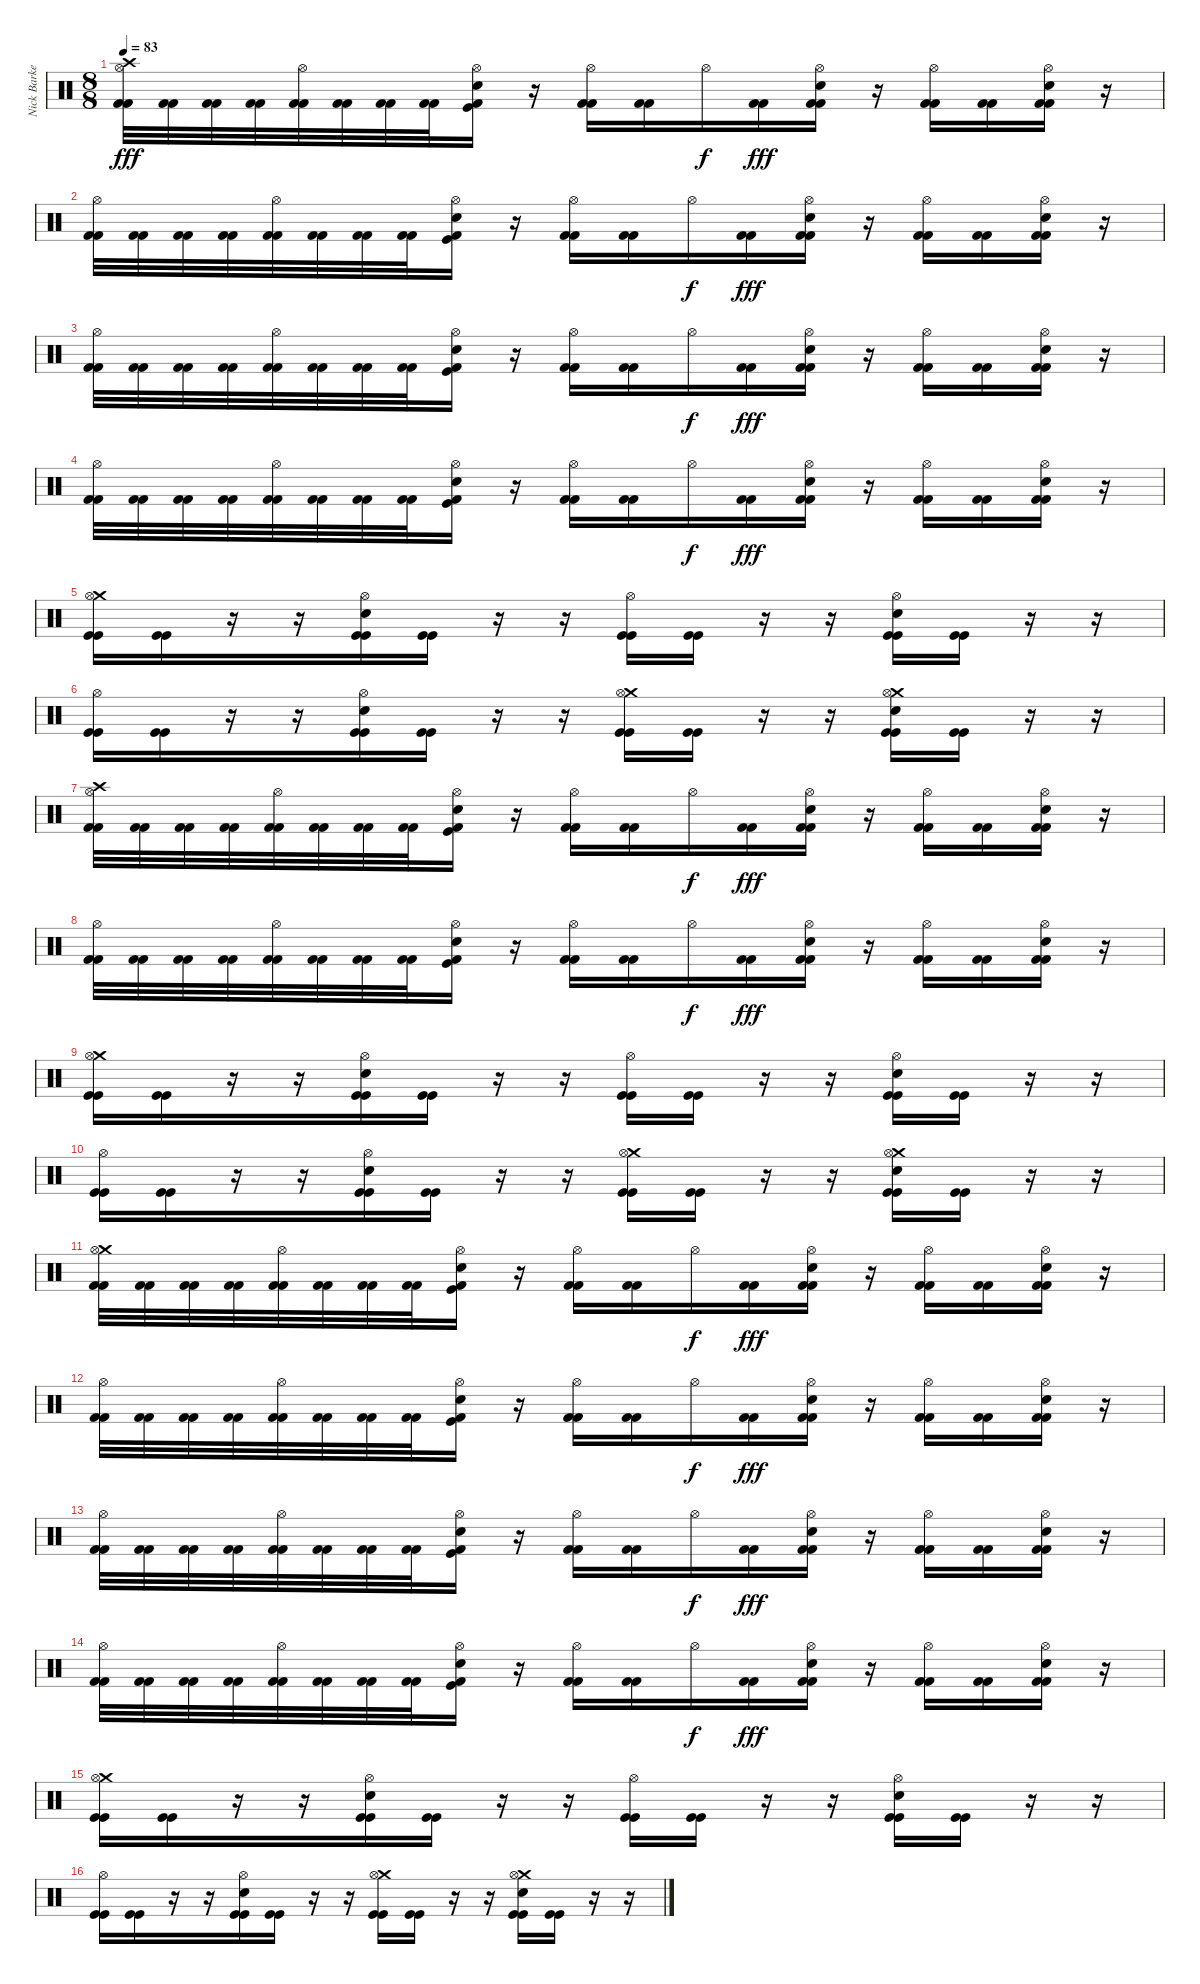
\track ("Nick Barker" "Nick Barke") {instrument percussion}
\staff {score}
\articulation defaults
\ts (8 8)
\tempo 83
\clef neutral
\ks c
("Kick (hit) 2" "Crash high (hit)" "Hi-Hat (open)" "Kick (hit) 2").32{dy fff} ("Kick (hit) 2" "Kick (hit) 2").32 ("Kick (hit) 2" "Kick (hit) 2").32 ("Kick (hit) 2" "Kick (hit) 2").32 ("Kick (hit) 2" "Hi-Hat (open)" "Kick (hit) 2").32 ("Kick (hit) 2" "Kick (hit) 2").32 ("Kick (hit) 2" "Kick (hit) 2").32 ("Kick (hit) 2" "Kick (hit) 2").32 ("Kick (hit) 2" "Hi-Hat (open)" "Snare (hit) 2" "Kick (hit)").16 r.16 ("Kick (hit) 2" "Hi-Hat (open)" "Kick (hit) 2").16 ("Kick (hit) 2" "Kick (hit) 2").16 "Hi-Hat (open)".16{dy f} ("Kick (hit) 2" "Kick (hit) 2").16{dy fff} ("Kick (hit) 2" "Snare (hit) 2" "Hi-Hat (open)" "Kick (hit) 2").16 r.16 ("Kick (hit) 2" "Hi-Hat (open)" "Kick (hit) 2").16 ("Kick (hit) 2" "Kick (hit) 2").16 ("Kick (hit) 2" "Snare (hit) 2" "Hi-Hat (open)" "Kick (hit) 2").16 r.16 |
("Kick (hit) 2" "Hi-Hat (open)" "Kick (hit) 2").32 ("Kick (hit) 2" "Kick (hit) 2").32 ("Kick (hit) 2" "Kick (hit) 2").32 ("Kick (hit) 2" "Kick (hit) 2").32 ("Kick (hit) 2" "Hi-Hat (open)" "Kick (hit) 2").32 ("Kick (hit) 2" "Kick (hit) 2").32 ("Kick (hit) 2" "Kick (hit) 2").32 ("Kick (hit) 2" "Kick (hit) 2").32 ("Kick (hit) 2" "Hi-Hat (open)" "Snare (hit) 2" "Kick (hit)").16 r.16 ("Kick (hit) 2" "Hi-Hat (open)" "Kick (hit) 2").16 ("Kick (hit) 2" "Kick (hit) 2").16 "Hi-Hat (open)".16{dy f} ("Kick (hit) 2" "Kick (hit) 2").16{dy fff} ("Kick (hit) 2" "Snare (hit) 2" "Hi-Hat (open)" "Kick (hit) 2").16 r.16 ("Kick (hit) 2" "Hi-Hat (open)" "Kick (hit) 2").16 ("Kick (hit) 2" "Kick (hit) 2").16 ("Kick (hit) 2" "Snare (hit) 2" "Hi-Hat (open)" "Kick (hit) 2").16 r.16 |
("Kick (hit) 2" "Hi-Hat (open)" "Kick (hit) 2").32 ("Kick (hit) 2" "Kick (hit) 2").32 ("Kick (hit) 2" "Kick (hit) 2").32 ("Kick (hit) 2" "Kick (hit) 2").32 ("Kick (hit) 2" "Hi-Hat (open)" "Kick (hit) 2").32 ("Kick (hit) 2" "Kick (hit) 2").32 ("Kick (hit) 2" "Kick (hit) 2").32 ("Kick (hit) 2" "Kick (hit) 2").32 ("Kick (hit) 2" "Hi-Hat (open)" "Snare (hit) 2" "Kick (hit)").16 r.16 ("Kick (hit) 2" "Hi-Hat (open)" "Kick (hit) 2").16 ("Kick (hit) 2" "Kick (hit) 2").16 "Hi-Hat (open)".16{dy f} ("Kick (hit) 2" "Kick (hit) 2").16{dy fff} ("Kick (hit) 2" "Snare (hit) 2" "Hi-Hat (open)" "Kick (hit) 2").16 r.16 ("Kick (hit) 2" "Hi-Hat (open)" "Kick (hit) 2").16 ("Kick (hit) 2" "Kick (hit) 2").16 ("Kick (hit) 2" "Snare (hit) 2" "Hi-Hat (open)" "Kick (hit) 2").16 r.16 |
("Kick (hit) 2" "Hi-Hat (open)" "Kick (hit) 2").32 ("Kick (hit) 2" "Kick (hit) 2").32 ("Kick (hit) 2" "Kick (hit) 2").32 ("Kick (hit) 2" "Kick (hit) 2").32 ("Kick (hit) 2" "Hi-Hat (open)" "Kick (hit) 2").32 ("Kick (hit) 2" "Kick (hit) 2").32 ("Kick (hit) 2" "Kick (hit) 2").32 ("Kick (hit) 2" "Kick (hit) 2").32 ("Kick (hit) 2" "Hi-Hat (open)" "Snare (hit) 2" "Kick (hit)").16 r.16 ("Kick (hit) 2" "Hi-Hat (open)" "Kick (hit) 2").16 ("Kick (hit) 2" "Kick (hit) 2").16 "Hi-Hat (open)".16{dy f} ("Kick (hit) 2" "Kick (hit) 2").16{dy fff} ("Kick (hit) 2" "Snare (hit) 2" "Hi-Hat (open)" "Kick (hit) 2").16 r.16 ("Kick (hit) 2" "Hi-Hat (open)" "Kick (hit) 2").16 ("Kick (hit) 2" "Kick (hit) 2").16 ("Kick (hit) 2" "Snare (hit) 2" "Hi-Hat (open)" "Kick (hit) 2").16 r.16 |
("Kick (hit)" "Crash medium (hit)" "Hi-Hat (open)" "Kick (hit)").16 ("Kick (hit)" "Kick (hit)").16 r.16 r.16 ("Kick (hit)" "Snare (hit) 2" "Hi-Hat (open)" "Kick (hit)").16 ("Kick (hit)" "Kick (hit)").16 r.16 r.16 ("Kick (hit)" "Hi-Hat (open)" "Kick (hit)").16 ("Kick (hit)" "Kick (hit)").16 r.16 r.16 ("Kick (hit)" "Snare (hit) 2" "Hi-Hat (open)" "Kick (hit)").16 ("Kick (hit)" "Kick (hit)").16 r.16 r.16 |
("Kick (hit)" "Hi-Hat (open)" "Kick (hit)").16 ("Kick (hit)" "Kick (hit)").16 r.16 r.16 ("Kick (hit)" "Snare (hit) 2" "Hi-Hat (open)" "Kick (hit)").16 ("Kick (hit)" "Kick (hit)").16 r.16 r.16 ("Kick (hit)" "Crash medium (hit)" "Hi-Hat (open)" "Kick (hit)").16 ("Kick (hit)" "Kick (hit)").16 r.16 r.16 ("Kick (hit)" "Crash medium (hit)" "Snare (hit) 2" "Hi-Hat (open)" "Kick (hit)").16 ("Kick (hit)" "Kick (hit)").16 r.16 r.16 |
("Kick (hit) 2" "Crash high (hit)" "Hi-Hat (open)" "Kick (hit) 2").32 ("Kick (hit) 2" "Kick (hit) 2").32 ("Kick (hit) 2" "Kick (hit) 2").32 ("Kick (hit) 2" "Kick (hit) 2").32 ("Kick (hit) 2" "Hi-Hat (open)" "Kick (hit) 2").32 ("Kick (hit) 2" "Kick (hit) 2").32 ("Kick (hit) 2" "Kick (hit) 2").32 ("Kick (hit) 2" "Kick (hit) 2").32 ("Kick (hit) 2" "Hi-Hat (open)" "Snare (hit) 2" "Kick (hit)").16 r.16 ("Kick (hit) 2" "Hi-Hat (open)" "Kick (hit) 2").16 ("Kick (hit) 2" "Kick (hit) 2").16 "Hi-Hat (open)".16{dy f} ("Kick (hit) 2" "Kick (hit) 2").16{dy fff} ("Kick (hit) 2" "Snare (hit) 2" "Hi-Hat (open)" "Kick (hit) 2").16 r.16 ("Kick (hit) 2" "Hi-Hat (open)" "Kick (hit) 2").16 ("Kick (hit) 2" "Kick (hit) 2").16 ("Kick (hit) 2" "Snare (hit) 2" "Hi-Hat (open)" "Kick (hit) 2").16 r.16 |
("Kick (hit) 2" "Hi-Hat (open)" "Kick (hit) 2").32 ("Kick (hit) 2" "Kick (hit) 2").32 ("Kick (hit) 2" "Kick (hit) 2").32 ("Kick (hit) 2" "Kick (hit) 2").32 ("Kick (hit) 2" "Hi-Hat (open)" "Kick (hit) 2").32 ("Kick (hit) 2" "Kick (hit) 2").32 ("Kick (hit) 2" "Kick (hit) 2").32 ("Kick (hit) 2" "Kick (hit) 2").32 ("Kick (hit) 2" "Hi-Hat (open)" "Snare (hit) 2" "Kick (hit)").16 r.16 ("Kick (hit) 2" "Hi-Hat (open)" "Kick (hit) 2").16 ("Kick (hit) 2" "Kick (hit) 2").16 "Hi-Hat (open)".16{dy f} ("Kick (hit) 2" "Kick (hit) 2").16{dy fff} ("Kick (hit) 2" "Snare (hit) 2" "Hi-Hat (open)" "Kick (hit) 2").16 r.16 ("Kick (hit) 2" "Hi-Hat (open)" "Kick (hit) 2").16 ("Kick (hit) 2" "Kick (hit) 2").16 ("Kick (hit) 2" "Snare (hit) 2" "Hi-Hat (open)" "Kick (hit) 2").16 r.16 |
("Kick (hit)" "Crash medium (hit)" "Hi-Hat (open)" "Kick (hit)").16 ("Kick (hit)" "Kick (hit)").16 r.16 r.16 ("Kick (hit)" "Snare (hit) 2" "Hi-Hat (open)" "Kick (hit)").16 ("Kick (hit)" "Kick (hit)").16 r.16 r.16 ("Kick (hit)" "Hi-Hat (open)" "Kick (hit)").16 ("Kick (hit)" "Kick (hit)").16 r.16 r.16 ("Kick (hit)" "Snare (hit) 2" "Hi-Hat (open)" "Kick (hit)").16 ("Kick (hit)" "Kick (hit)").16 r.16 r.16 |
("Kick (hit)" "Hi-Hat (open)" "Kick (hit)").16 ("Kick (hit)" "Kick (hit)").16 r.16 r.16 ("Kick (hit)" "Snare (hit) 2" "Hi-Hat (open)" "Kick (hit)").16 ("Kick (hit)" "Kick (hit)").16 r.16 r.16 ("Kick (hit)" "Crash medium (hit)" "Hi-Hat (open)" "Kick (hit)").16 ("Kick (hit)" "Kick (hit)").16 r.16 r.16 ("Kick (hit)" "Crash medium (hit)" "Snare (hit) 2" "Hi-Hat (open)" "Kick (hit)").16 ("Kick (hit)" "Kick (hit)").16 r.16 r.16 |
("Kick (hit) 2" "Crash medium (hit)" "Hi-Hat (open)" "Kick (hit) 2").32 ("Kick (hit) 2" "Kick (hit) 2").32 ("Kick (hit) 2" "Kick (hit) 2").32 ("Kick (hit) 2" "Kick (hit) 2").32 ("Kick (hit) 2" "Hi-Hat (open)" "Kick (hit) 2").32 ("Kick (hit) 2" "Kick (hit) 2").32 ("Kick (hit) 2" "Kick (hit) 2").32 ("Kick (hit) 2" "Kick (hit) 2").32 ("Kick (hit) 2" "Hi-Hat (open)" "Snare (hit) 2" "Kick (hit)").16 r.16 ("Kick (hit) 2" "Hi-Hat (open)" "Kick (hit) 2").16 ("Kick (hit) 2" "Kick (hit) 2").16 "Hi-Hat (open)".16{dy f} ("Kick (hit) 2" "Kick (hit) 2").16{dy fff} ("Kick (hit) 2" "Snare (hit) 2" "Hi-Hat (open)" "Kick (hit) 2").16 r.16 ("Kick (hit) 2" "Hi-Hat (open)" "Kick (hit) 2").16 ("Kick (hit) 2" "Kick (hit) 2").16 ("Kick (hit) 2" "Snare (hit) 2" "Hi-Hat (open)" "Kick (hit) 2").16 r.16 |
("Kick (hit) 2" "Hi-Hat (open)" "Kick (hit) 2").32 ("Kick (hit) 2" "Kick (hit) 2").32 ("Kick (hit) 2" "Kick (hit) 2").32 ("Kick (hit) 2" "Kick (hit) 2").32 ("Kick (hit) 2" "Hi-Hat (open)" "Kick (hit) 2").32 ("Kick (hit) 2" "Kick (hit) 2").32 ("Kick (hit) 2" "Kick (hit) 2").32 ("Kick (hit) 2" "Kick (hit) 2").32 ("Kick (hit) 2" "Hi-Hat (open)" "Snare (hit) 2" "Kick (hit)").16 r.16 ("Kick (hit) 2" "Hi-Hat (open)" "Kick (hit) 2").16 ("Kick (hit) 2" "Kick (hit) 2").16 "Hi-Hat (open)".16{dy f} ("Kick (hit) 2" "Kick (hit) 2").16{dy fff} ("Kick (hit) 2" "Snare (hit) 2" "Hi-Hat (open)" "Kick (hit) 2").16 r.16 ("Kick (hit) 2" "Hi-Hat (open)" "Kick (hit) 2").16 ("Kick (hit) 2" "Kick (hit) 2").16 ("Kick (hit) 2" "Snare (hit) 2" "Hi-Hat (open)" "Kick (hit) 2").16 r.16 |
("Kick (hit) 2" "Hi-Hat (open)" "Kick (hit) 2").32 ("Kick (hit) 2" "Kick (hit) 2").32 ("Kick (hit) 2" "Kick (hit) 2").32 ("Kick (hit) 2" "Kick (hit) 2").32 ("Kick (hit) 2" "Hi-Hat (open)" "Kick (hit) 2").32 ("Kick (hit) 2" "Kick (hit) 2").32 ("Kick (hit) 2" "Kick (hit) 2").32 ("Kick (hit) 2" "Kick (hit) 2").32 ("Kick (hit) 2" "Hi-Hat (open)" "Snare (hit) 2" "Kick (hit)").16 r.16 ("Kick (hit) 2" "Hi-Hat (open)" "Kick (hit) 2").16 ("Kick (hit) 2" "Kick (hit) 2").16 "Hi-Hat (open)".16{dy f} ("Kick (hit) 2" "Kick (hit) 2").16{dy fff} ("Kick (hit) 2" "Snare (hit) 2" "Hi-Hat (open)" "Kick (hit) 2").16 r.16 ("Kick (hit) 2" "Hi-Hat (open)" "Kick (hit) 2").16 ("Kick (hit) 2" "Kick (hit) 2").16 ("Kick (hit) 2" "Snare (hit) 2" "Hi-Hat (open)" "Kick (hit) 2").16 r.16 |
("Kick (hit) 2" "Hi-Hat (open)" "Kick (hit) 2").32 ("Kick (hit) 2" "Kick (hit) 2").32 ("Kick (hit) 2" "Kick (hit) 2").32 ("Kick (hit) 2" "Kick (hit) 2").32 ("Kick (hit) 2" "Hi-Hat (open)" "Kick (hit) 2").32 ("Kick (hit) 2" "Kick (hit) 2").32 ("Kick (hit) 2" "Kick (hit) 2").32 ("Kick (hit) 2" "Kick (hit) 2").32 ("Kick (hit) 2" "Hi-Hat (open)" "Snare (hit) 2" "Kick (hit)").16 r.16 ("Kick (hit) 2" "Hi-Hat (open)" "Kick (hit) 2").16 ("Kick (hit) 2" "Kick (hit) 2").16 "Hi-Hat (open)".16{dy f} ("Kick (hit) 2" "Kick (hit) 2").16{dy fff} ("Kick (hit) 2" "Snare (hit) 2" "Hi-Hat (open)" "Kick (hit) 2").16 r.16 ("Kick (hit) 2" "Hi-Hat (open)" "Kick (hit) 2").16 ("Kick (hit) 2" "Kick (hit) 2").16 ("Kick (hit) 2" "Snare (hit) 2" "Hi-Hat (open)" "Kick (hit) 2").16 r.16 |
("Kick (hit)" "Crash medium (hit)" "Hi-Hat (open)" "Kick (hit)").16 ("Kick (hit)" "Kick (hit)").16 r.16 r.16 ("Kick (hit)" "Snare (hit) 2" "Hi-Hat (open)" "Kick (hit)").16 ("Kick (hit)" "Kick (hit)").16 r.16 r.16 ("Kick (hit)" "Hi-Hat (open)" "Kick (hit)").16 ("Kick (hit)" "Kick (hit)").16 r.16 r.16 ("Kick (hit)" "Snare (hit) 2" "Hi-Hat (open)" "Kick (hit)").16 ("Kick (hit)" "Kick (hit)").16 r.16 r.16 |
("Kick (hit)" "Hi-Hat (open)" "Kick (hit)").16 ("Kick (hit)" "Kick (hit)").16 r.16 r.16 ("Kick (hit)" "Snare (hit) 2" "Hi-Hat (open)" "Kick (hit)").16 ("Kick (hit)" "Kick (hit)").16 r.16 r.16 ("Kick (hit)" "Crash medium (hit)" "Hi-Hat (open)" "Kick (hit)").16 ("Kick (hit)" "Kick (hit)").16 r.16 r.16 ("Kick (hit)" "Crash medium (hit)" "Snare (hit) 2" "Hi-Hat (open)" "Kick (hit)").16 ("Kick (hit)" "Kick (hit)").16 r.16 r.16
